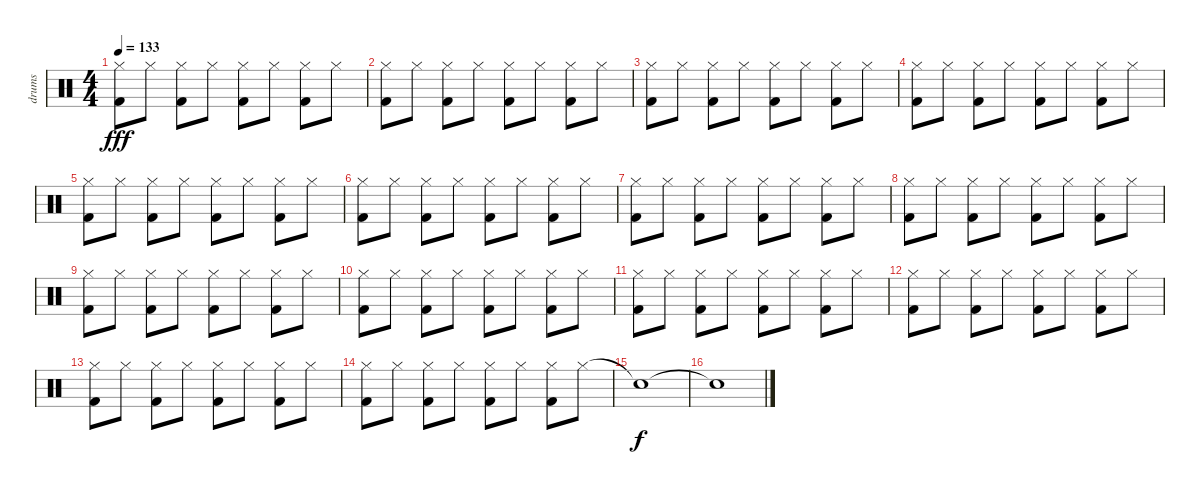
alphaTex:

\track ("drums" "drums") {instrument percussion}
\staff {score}
\articulation defaults
\ts (4 4)
\tempo 133
\clef neutral
\ks c
("Kick (hit) 2" "Hi-Hat (closed)").8{dy fff} "Hi-Hat (closed)".8 ("Kick (hit) 2" "Hi-Hat (closed)").8 "Hi-Hat (closed)".8 ("Kick (hit) 2" "Hi-Hat (closed)").8 "Hi-Hat (closed)".8 ("Kick (hit) 2" "Hi-Hat (closed)").8 "Hi-Hat (closed)".8 |
("Kick (hit) 2" "Hi-Hat (closed)").8 "Hi-Hat (closed)".8 ("Kick (hit) 2" "Hi-Hat (closed)").8 "Hi-Hat (closed)".8 ("Kick (hit) 2" "Hi-Hat (closed)").8 "Hi-Hat (closed)".8 ("Kick (hit) 2" "Hi-Hat (closed)").8 "Hi-Hat (closed)".8 |
("Kick (hit) 2" "Hi-Hat (closed)").8 "Hi-Hat (closed)".8 ("Kick (hit) 2" "Hi-Hat (closed)").8 "Hi-Hat (closed)".8 ("Kick (hit) 2" "Hi-Hat (closed)").8 "Hi-Hat (closed)".8 ("Kick (hit) 2" "Hi-Hat (closed)").8 "Hi-Hat (closed)".8 |
("Kick (hit) 2" "Hi-Hat (closed)").8 "Hi-Hat (closed)".8 ("Kick (hit) 2" "Hi-Hat (closed)").8 "Hi-Hat (closed)".8 ("Kick (hit) 2" "Hi-Hat (closed)").8 "Hi-Hat (closed)".8 ("Kick (hit) 2" "Hi-Hat (closed)").8 "Hi-Hat (closed)".8 |
("Kick (hit) 2" "Hi-Hat (closed)").8 "Hi-Hat (closed)".8 ("Kick (hit) 2" "Hi-Hat (closed)").8 "Hi-Hat (closed)".8 ("Kick (hit) 2" "Hi-Hat (closed)").8 "Hi-Hat (closed)".8 ("Kick (hit) 2" "Hi-Hat (closed)").8 "Hi-Hat (closed)".8 |
("Kick (hit) 2" "Hi-Hat (closed)").8 "Hi-Hat (closed)".8 ("Kick (hit) 2" "Hi-Hat (closed)").8 "Hi-Hat (closed)".8 ("Kick (hit) 2" "Hi-Hat (closed)").8 "Hi-Hat (closed)".8 ("Kick (hit) 2" "Hi-Hat (closed)").8 "Hi-Hat (closed)".8 |
("Kick (hit) 2" "Hi-Hat (closed)").8 "Hi-Hat (closed)".8 ("Kick (hit) 2" "Hi-Hat (closed)").8 "Hi-Hat (closed)".8 ("Kick (hit) 2" "Hi-Hat (closed)").8 "Hi-Hat (closed)".8 ("Kick (hit) 2" "Hi-Hat (closed)").8 "Hi-Hat (closed)".8 |
("Kick (hit) 2" "Hi-Hat (closed)").8 "Hi-Hat (closed)".8 ("Kick (hit) 2" "Hi-Hat (closed)").8 "Hi-Hat (closed)".8 ("Kick (hit) 2" "Hi-Hat (closed)").8 "Hi-Hat (closed)".8 ("Kick (hit) 2" "Hi-Hat (closed)").8 "Hi-Hat (closed)".8 |
("Kick (hit) 2" "Hi-Hat (closed)").8 "Hi-Hat (closed)".8 ("Kick (hit) 2" "Hi-Hat (closed)").8 "Hi-Hat (closed)".8 ("Kick (hit) 2" "Hi-Hat (closed)").8 "Hi-Hat (closed)".8 ("Kick (hit) 2" "Hi-Hat (closed)").8 "Hi-Hat (closed)".8 |
("Kick (hit) 2" "Hi-Hat (closed)").8 "Hi-Hat (closed)".8 ("Kick (hit) 2" "Hi-Hat (closed)").8 "Hi-Hat (closed)".8 ("Kick (hit) 2" "Hi-Hat (closed)").8 "Hi-Hat (closed)".8 ("Kick (hit) 2" "Hi-Hat (closed)").8 "Hi-Hat (closed)".8 |
("Kick (hit) 2" "Hi-Hat (closed)").8 "Hi-Hat (closed)".8 ("Kick (hit) 2" "Hi-Hat (closed)").8 "Hi-Hat (closed)".8 ("Kick (hit) 2" "Hi-Hat (closed)").8 "Hi-Hat (closed)".8 ("Kick (hit) 2" "Hi-Hat (closed)").8 "Hi-Hat (closed)".8 |
("Kick (hit) 2" "Hi-Hat (closed)").8 "Hi-Hat (closed)".8 ("Kick (hit) 2" "Hi-Hat (closed)").8 "Hi-Hat (closed)".8 ("Kick (hit) 2" "Hi-Hat (closed)").8 "Hi-Hat (closed)".8 ("Kick (hit) 2" "Hi-Hat (closed)").8 "Hi-Hat (closed)".8 |
("Kick (hit) 2" "Hi-Hat (closed)").8 "Hi-Hat (closed)".8 ("Kick (hit) 2" "Hi-Hat (closed)").8 "Hi-Hat (closed)".8 ("Kick (hit) 2" "Hi-Hat (closed)").8 "Hi-Hat (closed)".8 ("Kick (hit) 2" "Hi-Hat (closed)").8 "Hi-Hat (closed)".8 |
("Kick (hit) 2" "Hi-Hat (closed)").8 "Hi-Hat (closed)".8 ("Kick (hit) 2" "Hi-Hat (closed)").8 "Hi-Hat (closed)".8 ("Kick (hit) 2" "Hi-Hat (closed)").8 "Hi-Hat (closed)".8 ("Kick (hit) 2" "Hi-Hat (closed)").8 "Hi-Hat (closed)".8 |
"Snare (hit)"{t}.1{dy f} |
"Snare (hit)"{t}.1
